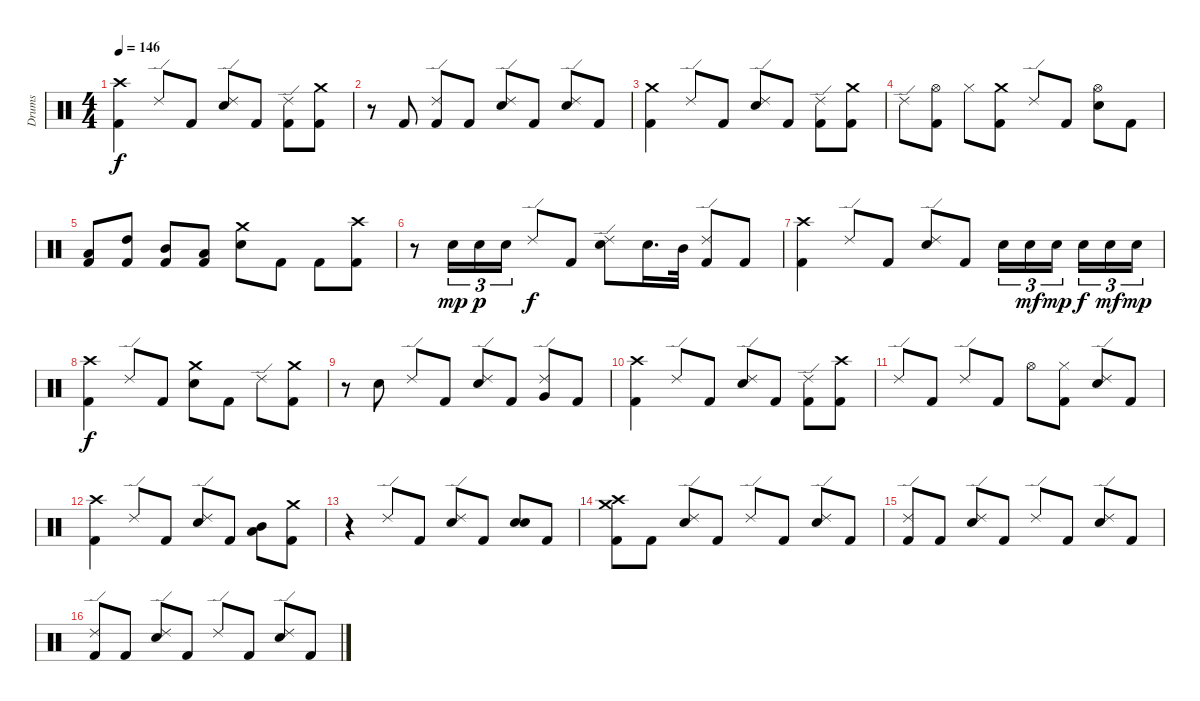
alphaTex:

\track ("Drums" "Drums") {instrument percussion}
\staff {score}
\articulation defaults
\ts (4 4)
\tempo 146
\clef neutral
\ks c
("Crash high (hit)" "Kick (hit) 2").4{dy f} "Ride (edge) 2".8 "Kick (hit) 2".8 ("Ride (edge) 2" "Electric Snare (hit)").8 "Kick (hit) 2".8 ("Ride (edge) 2" "Kick (hit) 2").8 ("Crash medium (hit)" "Kick (hit) 2").8 |
r.8 "Kick (hit) 2".8 ("Ride (edge) 2" "Kick (hit) 2").8 "Kick (hit) 2".8 ("Ride (edge) 2" "Electric Snare (hit)").8 "Kick (hit) 2".8 ("Ride (edge) 2" "Electric Snare (hit)").8 "Kick (hit) 2".8 |
("Crash medium (hit)" "Kick (hit) 2").4 "Ride (edge) 2".8 "Kick (hit) 2".8 ("Ride (edge) 2" "Electric Snare (hit)").8 "Kick (hit) 2".8 ("Ride (edge) 2" "Kick (hit) 2").8 ("Crash medium (hit)" "Kick (hit) 2").8 |
"Ride (edge) 2".8 ("Hi-Hat (open)" "Kick (hit) 2").8 "Hi-Hat (closed)".8 ("Crash medium (hit)" "Kick (hit) 2").8 "Ride (edge) 2".8 "Kick (hit) 2".8 ("Hi-Hat (open)" "Electric Snare (hit)").8 "Kick (hit) 2".8 |
("Low Tom (hit)" "Kick (hit) 2").8 ("High Tom (hit)" "Kick (hit) 2").8 ("Mid Tom (hit)" "Kick (hit) 2").8 ("Low Floor Tom (hit)" "Kick (hit) 2").8 ("Crash medium (hit)" "Electric Snare (hit)").8 "Kick (hit) 2".8 "Kick (hit) 2".8 ("Crash high (hit)" "Kick (hit) 2").8 |
r.8 "Electric Snare (hit)".16{tu (3 2) dy mp} "Electric Snare (hit)".16{tu (3 2) dy p} "Electric Snare (hit)".16{tu (3 2)} "Ride (edge) 2".8{dy f} "Kick (hit) 2".8 ("Ride (edge) 2" "Electric Snare (hit)").8 "Electric Snare (hit)".16{d} "Mid Tom (hit)".32 ("Ride (edge) 2" "Kick (hit) 2").8 "Kick (hit) 2".8 |
("Crash high (hit)" "Kick (hit) 2").4 "Ride (edge) 2".8 "Kick (hit) 2".8 ("Ride (edge) 2" "Electric Snare (hit)").8 "Kick (hit) 2".8 "Electric Snare (hit)".16{tu (3 2)} "Electric Snare (hit)".16{tu (3 2) dy mf} "Electric Snare (hit)".16{tu (3 2) dy mp beam splitsecondary} "Electric Snare (hit)".16{tu (3 2) dy f} "Electric Snare (hit)".16{tu (3 2) dy mf} "Electric Snare (hit)".16{tu (3 2) dy mp} |
("Crash high (hit)" "Kick (hit) 2").4{dy f} "Ride (edge) 2".8 "Kick (hit) 2".8 ("Crash medium (hit)" "Electric Snare (hit)").8 "Kick (hit) 2".8 "Ride (edge) 2".8 ("Crash medium (hit)" "Kick (hit) 2").8 |
r.8 "Electric Snare (hit)".8 "Ride (edge) 2".8 "Kick (hit) 2".8 ("Ride (edge) 2" "Electric Snare (hit)").8 "Kick (hit) 2".8 ("Ride (edge) 2" "Very Low Tom (hit)").8 "Kick (hit) 2".8 |
("Crash high (hit)" "Kick (hit) 2").4 "Ride (edge) 2".8 "Kick (hit) 2".8 ("Ride (edge) 2" "Electric Snare (hit)").8 "Kick (hit) 2".8 ("Ride (edge) 2" "Kick (hit) 2").8 ("Crash high (hit)" "Kick (hit) 2").8 |
"Ride (edge) 2".8 "Kick (hit) 2".8 "Ride (edge) 2".8 "Kick (hit) 2".8 "Hi-Hat (open)".8 ("Hi-Hat (closed)" "Kick (hit) 2").8 ("Ride (edge) 2" "Electric Snare (hit)").8 "Kick (hit) 2".8 |
("Crash high (hit)" "Kick (hit) 2").4 "Ride (edge) 2".8 "Kick (hit) 2".8 ("Ride (edge) 2" "Electric Snare (hit)").8 "Kick (hit) 2".8 ("Mid Tom (hit)" "Low Tom (hit)").8 ("Crash medium (hit)" "Kick (hit) 2").8 |
r.4 "Ride (edge) 2".8 "Kick (hit) 2".8 ("Ride (edge) 2" "Electric Snare (hit)").8 "Kick (hit) 2".8 ("Electric Snare (hit)" "Electric Snare (hit)").8{bu 240} "Kick (hit) 2".8 |
("Crash high (hit)" "Crash medium (hit)" "Kick (hit) 2").8 "Kick (hit) 2".8 ("Ride (edge) 2" "Electric Snare (hit)").8 "Kick (hit) 2".8 "Ride (edge) 2".8 "Kick (hit) 2".8 ("Ride (edge) 2" "Electric Snare (hit)").8 "Kick (hit) 2".8 |
("Ride (edge) 2" "Kick (hit) 2").8 "Kick (hit) 2".8 ("Ride (edge) 2" "Electric Snare (hit)").8 "Kick (hit) 2".8 "Ride (edge) 2".8 "Kick (hit) 2".8 ("Ride (edge) 2" "Electric Snare (hit)").8 "Kick (hit) 2".8 |
("Ride (edge) 2" "Kick (hit) 2").8 "Kick (hit) 2".8 ("Ride (edge) 2" "Electric Snare (hit)").8 "Kick (hit) 2".8 "Ride (edge) 2".8 "Kick (hit) 2".8 ("Ride (edge) 2" "Electric Snare (hit)").8 "Kick (hit) 2".8
